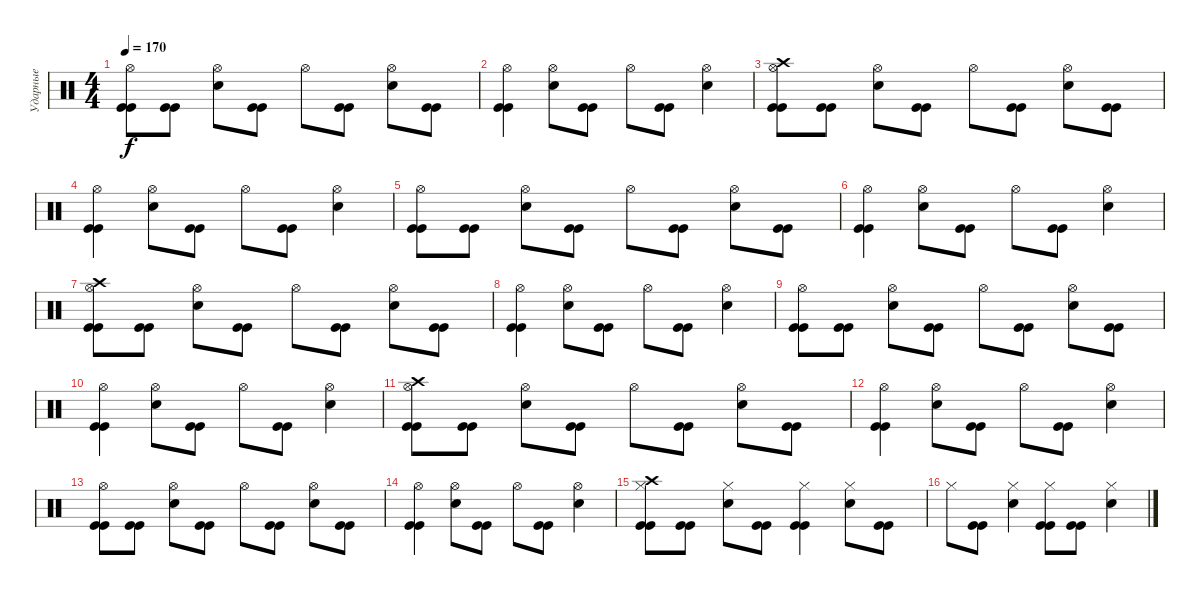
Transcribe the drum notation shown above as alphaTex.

\track ("Ударные" "Ударные") {instrument percussion}
\staff {score}
\articulation defaults
\ts (4 4)
\tempo 170
\clef neutral
\ks c
("Hi-Hat (open)" "Kick (hit)" "Kick (hit)").8{dy f} ("Kick (hit)" "Kick (hit)").8 ("Hi-Hat (open)" "Electric Snare (hit)").8 ("Kick (hit)" "Kick (hit)").8 "Hi-Hat (open)".8 ("Kick (hit)" "Kick (hit)").8 ("Hi-Hat (open)" "Electric Snare (hit)").8 ("Kick (hit)" "Kick (hit)").8 |
("Hi-Hat (open)" "Kick (hit)" "Kick (hit)").4 ("Hi-Hat (open)" "Electric Snare (hit)").8 ("Kick (hit)" "Kick (hit)").8 "Hi-Hat (open)".8 ("Kick (hit)" "Kick (hit)").8 ("Hi-Hat (open)" "Electric Snare (hit)").4 |
("Crash high (hit)" "Hi-Hat (open)" "Kick (hit)" "Kick (hit)").8 ("Kick (hit)" "Kick (hit)").8 ("Hi-Hat (open)" "Electric Snare (hit)").8 ("Kick (hit)" "Kick (hit)").8 "Hi-Hat (open)".8 ("Kick (hit)" "Kick (hit)").8 ("Hi-Hat (open)" "Electric Snare (hit)").8 ("Kick (hit)" "Kick (hit)").8 |
("Hi-Hat (open)" "Kick (hit)" "Kick (hit)").4 ("Hi-Hat (open)" "Electric Snare (hit)").8 ("Kick (hit)" "Kick (hit)").8 "Hi-Hat (open)".8 ("Kick (hit)" "Kick (hit)").8 ("Hi-Hat (open)" "Electric Snare (hit)").4 |
("Hi-Hat (open)" "Kick (hit)" "Kick (hit)").8 ("Kick (hit)" "Kick (hit)").8 ("Hi-Hat (open)" "Electric Snare (hit)").8 ("Kick (hit)" "Kick (hit)").8 "Hi-Hat (open)".8 ("Kick (hit)" "Kick (hit)").8 ("Hi-Hat (open)" "Electric Snare (hit)").8 ("Kick (hit)" "Kick (hit)").8 |
("Hi-Hat (open)" "Kick (hit)" "Kick (hit)").4 ("Hi-Hat (open)" "Electric Snare (hit)").8 ("Kick (hit)" "Kick (hit)").8 "Hi-Hat (open)".8 ("Kick (hit)" "Kick (hit)").8 ("Hi-Hat (open)" "Electric Snare (hit)").4 |
("Crash high (hit)" "Hi-Hat (open)" "Kick (hit)" "Kick (hit)").8 ("Kick (hit)" "Kick (hit)").8 ("Hi-Hat (open)" "Electric Snare (hit)").8 ("Kick (hit)" "Kick (hit)").8 "Hi-Hat (open)".8 ("Kick (hit)" "Kick (hit)").8 ("Hi-Hat (open)" "Electric Snare (hit)").8 ("Kick (hit)" "Kick (hit)").8 |
("Hi-Hat (open)" "Kick (hit)" "Kick (hit)").4 ("Hi-Hat (open)" "Electric Snare (hit)").8 ("Kick (hit)" "Kick (hit)").8 "Hi-Hat (open)".8 ("Kick (hit)" "Kick (hit)").8 ("Hi-Hat (open)" "Electric Snare (hit)").4 |
("Hi-Hat (open)" "Kick (hit)" "Kick (hit)").8 ("Kick (hit)" "Kick (hit)").8 ("Hi-Hat (open)" "Electric Snare (hit)").8 ("Kick (hit)" "Kick (hit)").8 "Hi-Hat (open)".8 ("Kick (hit)" "Kick (hit)").8 ("Hi-Hat (open)" "Electric Snare (hit)").8 ("Kick (hit)" "Kick (hit)").8 |
("Hi-Hat (open)" "Kick (hit)" "Kick (hit)").4 ("Hi-Hat (open)" "Electric Snare (hit)").8 ("Kick (hit)" "Kick (hit)").8 "Hi-Hat (open)".8 ("Kick (hit)" "Kick (hit)").8 ("Hi-Hat (open)" "Electric Snare (hit)").4 |
("Crash high (hit)" "Hi-Hat (open)" "Kick (hit)" "Kick (hit)").8 ("Kick (hit)" "Kick (hit)").8 ("Hi-Hat (open)" "Electric Snare (hit)").8 ("Kick (hit)" "Kick (hit)").8 "Hi-Hat (open)".8 ("Kick (hit)" "Kick (hit)").8 ("Hi-Hat (open)" "Electric Snare (hit)").8 ("Kick (hit)" "Kick (hit)").8 |
("Hi-Hat (open)" "Kick (hit)" "Kick (hit)").4 ("Hi-Hat (open)" "Electric Snare (hit)").8 ("Kick (hit)" "Kick (hit)").8 "Hi-Hat (open)".8 ("Kick (hit)" "Kick (hit)").8 ("Hi-Hat (open)" "Electric Snare (hit)").4 |
("Hi-Hat (open)" "Kick (hit)" "Kick (hit)").8 ("Kick (hit)" "Kick (hit)").8 ("Hi-Hat (open)" "Electric Snare (hit)").8 ("Kick (hit)" "Kick (hit)").8 "Hi-Hat (open)".8 ("Kick (hit)" "Kick (hit)").8 ("Hi-Hat (open)" "Electric Snare (hit)").8 ("Kick (hit)" "Kick (hit)").8 |
("Hi-Hat (open)" "Kick (hit)" "Kick (hit)").4 ("Hi-Hat (open)" "Electric Snare (hit)").8 ("Kick (hit)" "Kick (hit)").8 "Hi-Hat (open)".8 ("Kick (hit)" "Kick (hit)").8 ("Hi-Hat (open)" "Electric Snare (hit)").4 |
("Crash high (hit)" "Hi-Hat (closed)" "Kick (hit)" "Kick (hit)").8 ("Kick (hit)" "Kick (hit)").8 ("Hi-Hat (closed)" "Electric Snare (hit)").8 ("Kick (hit)" "Kick (hit)").8 ("Hi-Hat (closed)" "Kick (hit)" "Kick (hit)").4 ("Hi-Hat (closed)" "Electric Snare (hit)").8 ("Kick (hit)" "Kick (hit)").8 |
"Hi-Hat (closed)".8 ("Kick (hit)" "Kick (hit)").8 ("Hi-Hat (closed)" "Electric Snare (hit)").4 ("Hi-Hat (closed)" "Kick (hit)" "Kick (hit)").8 ("Kick (hit)" "Kick (hit)").8 ("Hi-Hat (closed)" "Electric Snare (hit)").4
